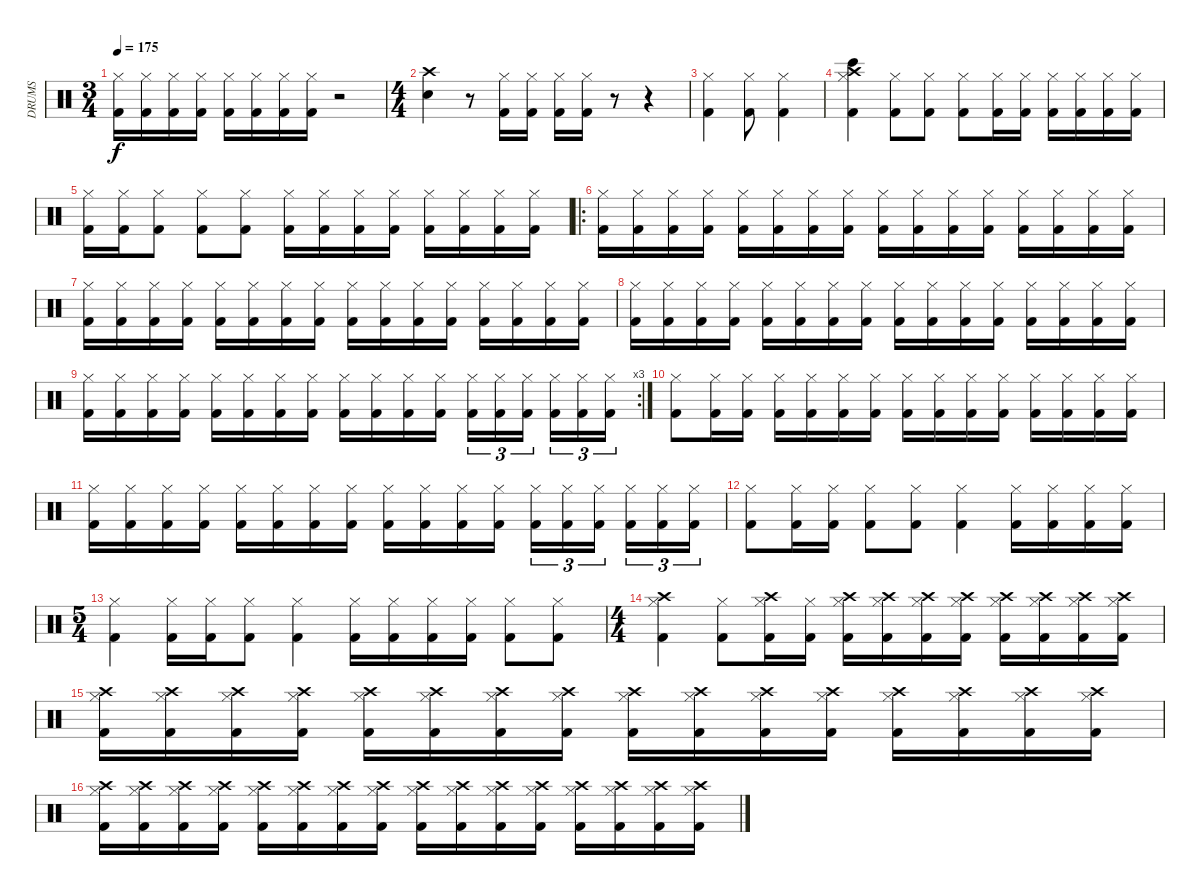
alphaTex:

\track ("DRUMS" "DRUMS") {instrument percussion}
\staff {score}
\articulation defaults
\ts (3 4)
\tempo 175
\clef neutral
\ks c
("Kick (hit) 2" "Hi-Hat (closed)").16{dy f} ("Kick (hit) 2" "Hi-Hat (closed)").16 ("Kick (hit) 2" "Hi-Hat (closed)").16 ("Kick (hit) 2" "Hi-Hat (closed)").16 ("Kick (hit) 2" "Hi-Hat (closed)").16 ("Kick (hit) 2" "Hi-Hat (closed)").16 ("Kick (hit) 2" "Hi-Hat (closed)").16 ("Kick (hit) 2" "Hi-Hat (closed)").16 r.2 |
\ts (4 4)
("Crash high (hit)" "Snare (hit) 2").4 r.8 ("Kick (hit) 2" "Hi-Hat (closed)").16 ("Kick (hit) 2" "Hi-Hat (closed)").16 ("Kick (hit) 2" "Hi-Hat (closed)").16 ("Kick (hit) 2" "Hi-Hat (closed)").16 r.8 r.4 |
("Kick (hit) 2" "Hi-Hat (closed)").4 ("Kick (hit) 2" "Hi-Hat (closed)").8 ("Kick (hit) 2" "Hi-Hat (closed)").4 |
("Crash high (hit)" "Bongo High (hit)" "Hi-Hat (closed)" "Kick (hit) 2").4 ("Kick (hit) 2" "Hi-Hat (closed)").8 ("Kick (hit) 2" "Hi-Hat (closed)").8 ("Kick (hit) 2" "Hi-Hat (closed)").8 ("Kick (hit) 2" "Hi-Hat (closed)").16 ("Kick (hit) 2" "Hi-Hat (closed)").16 ("Kick (hit) 2" "Hi-Hat (closed)").16 ("Kick (hit) 2" "Hi-Hat (closed)").16 ("Kick (hit) 2" "Hi-Hat (closed)").16 ("Kick (hit) 2" "Hi-Hat (closed)").16 |
("Kick (hit) 2" "Hi-Hat (closed)").16 ("Kick (hit) 2" "Hi-Hat (closed)").16 ("Kick (hit) 2" "Hi-Hat (closed)").8 ("Kick (hit) 2" "Hi-Hat (closed)").8 ("Kick (hit) 2" "Hi-Hat (closed)").8 ("Kick (hit) 2" "Hi-Hat (closed)").16 ("Kick (hit) 2" "Hi-Hat (closed)").16 ("Kick (hit) 2" "Hi-Hat (closed)").16 ("Kick (hit) 2" "Hi-Hat (closed)").16 ("Kick (hit) 2" "Hi-Hat (closed)").16 ("Kick (hit) 2" "Hi-Hat (closed)").16 ("Kick (hit) 2" "Hi-Hat (closed)").16 ("Kick (hit) 2" "Hi-Hat (closed)").16 |
\ro
("Kick (hit) 2" "Hi-Hat (closed)").16 ("Kick (hit) 2" "Hi-Hat (closed)").16 ("Kick (hit) 2" "Hi-Hat (closed)").16 ("Kick (hit) 2" "Hi-Hat (closed)").16 ("Kick (hit) 2" "Hi-Hat (closed)").16 ("Kick (hit) 2" "Hi-Hat (closed)").16 ("Kick (hit) 2" "Hi-Hat (closed)").16 ("Kick (hit) 2" "Hi-Hat (closed)").16 ("Kick (hit) 2" "Hi-Hat (closed)").16 ("Kick (hit) 2" "Hi-Hat (closed)").16 ("Kick (hit) 2" "Hi-Hat (closed)").16 ("Kick (hit) 2" "Hi-Hat (closed)").16 ("Kick (hit) 2" "Hi-Hat (closed)").16 ("Kick (hit) 2" "Hi-Hat (closed)").16 ("Kick (hit) 2" "Hi-Hat (closed)").16 ("Kick (hit) 2" "Hi-Hat (closed)").16 |
("Kick (hit) 2" "Hi-Hat (closed)").16 ("Kick (hit) 2" "Hi-Hat (closed)").16 ("Kick (hit) 2" "Hi-Hat (closed)").16 ("Kick (hit) 2" "Hi-Hat (closed)").16 ("Kick (hit) 2" "Hi-Hat (closed)").16 ("Kick (hit) 2" "Hi-Hat (closed)").16 ("Kick (hit) 2" "Hi-Hat (closed)").16 ("Kick (hit) 2" "Hi-Hat (closed)").16 ("Kick (hit) 2" "Hi-Hat (closed)").16 ("Kick (hit) 2" "Hi-Hat (closed)").16 ("Kick (hit) 2" "Hi-Hat (closed)").16 ("Kick (hit) 2" "Hi-Hat (closed)").16 ("Kick (hit) 2" "Hi-Hat (closed)").16 ("Kick (hit) 2" "Hi-Hat (closed)").16 ("Kick (hit) 2" "Hi-Hat (closed)").16 ("Kick (hit) 2" "Hi-Hat (closed)").16 |
("Kick (hit) 2" "Hi-Hat (closed)").16 ("Kick (hit) 2" "Hi-Hat (closed)").16 ("Kick (hit) 2" "Hi-Hat (closed)").16 ("Kick (hit) 2" "Hi-Hat (closed)").16 ("Kick (hit) 2" "Hi-Hat (closed)").16 ("Kick (hit) 2" "Hi-Hat (closed)").16 ("Kick (hit) 2" "Hi-Hat (closed)").16 ("Kick (hit) 2" "Hi-Hat (closed)").16 ("Kick (hit) 2" "Hi-Hat (closed)").16 ("Kick (hit) 2" "Hi-Hat (closed)").16 ("Kick (hit) 2" "Hi-Hat (closed)").16 ("Kick (hit) 2" "Hi-Hat (closed)").16 ("Kick (hit) 2" "Hi-Hat (closed)").16 ("Kick (hit) 2" "Hi-Hat (closed)").16 ("Kick (hit) 2" "Hi-Hat (closed)").16 ("Kick (hit) 2" "Hi-Hat (closed)").16 |
\rc 3
("Kick (hit) 2" "Hi-Hat (closed)").16 ("Kick (hit) 2" "Hi-Hat (closed)").16 ("Kick (hit) 2" "Hi-Hat (closed)").16 ("Kick (hit) 2" "Hi-Hat (closed)").16 ("Kick (hit) 2" "Hi-Hat (closed)").16 ("Kick (hit) 2" "Hi-Hat (closed)").16 ("Kick (hit) 2" "Hi-Hat (closed)").16 ("Kick (hit) 2" "Hi-Hat (closed)").16 ("Kick (hit) 2" "Hi-Hat (closed)").16 ("Kick (hit) 2" "Hi-Hat (closed)").16 ("Kick (hit) 2" "Hi-Hat (closed)").16 ("Kick (hit) 2" "Hi-Hat (closed)").16 ("Kick (hit) 2" "Hi-Hat (closed)").16{tu (3 2)} ("Kick (hit) 2" "Hi-Hat (closed)").16{tu (3 2)} ("Kick (hit) 2" "Hi-Hat (closed)").16{tu (3 2)} ("Kick (hit) 2" "Hi-Hat (closed)").16{tu (3 2)} ("Kick (hit) 2" "Hi-Hat (closed)").16{tu (3 2)} ("Kick (hit) 2" "Hi-Hat (closed)").16{tu (3 2)} |
("Kick (hit) 2" "Hi-Hat (closed)").8 ("Kick (hit) 2" "Hi-Hat (closed)").16 ("Kick (hit) 2" "Hi-Hat (closed)").16 ("Kick (hit) 2" "Hi-Hat (closed)").16 ("Kick (hit) 2" "Hi-Hat (closed)").16 ("Kick (hit) 2" "Hi-Hat (closed)").16 ("Kick (hit) 2" "Hi-Hat (closed)").16 ("Kick (hit) 2" "Hi-Hat (closed)").16 ("Kick (hit) 2" "Hi-Hat (closed)").16 ("Kick (hit) 2" "Hi-Hat (closed)").16 ("Kick (hit) 2" "Hi-Hat (closed)").16 ("Kick (hit) 2" "Hi-Hat (closed)").16 ("Kick (hit) 2" "Hi-Hat (closed)").16 ("Kick (hit) 2" "Hi-Hat (closed)").16 ("Kick (hit) 2" "Hi-Hat (closed)").16 |
("Kick (hit) 2" "Hi-Hat (closed)").16 ("Kick (hit) 2" "Hi-Hat (closed)").16 ("Kick (hit) 2" "Hi-Hat (closed)").16 ("Kick (hit) 2" "Hi-Hat (closed)").16 ("Kick (hit) 2" "Hi-Hat (closed)").16 ("Kick (hit) 2" "Hi-Hat (closed)").16 ("Kick (hit) 2" "Hi-Hat (closed)").16 ("Kick (hit) 2" "Hi-Hat (closed)").16 ("Kick (hit) 2" "Hi-Hat (closed)").16 ("Kick (hit) 2" "Hi-Hat (closed)").16 ("Kick (hit) 2" "Hi-Hat (closed)").16 ("Kick (hit) 2" "Hi-Hat (closed)").16 ("Kick (hit) 2" "Hi-Hat (closed)").16{tu (3 2)} ("Kick (hit) 2" "Hi-Hat (closed)").16{tu (3 2)} ("Kick (hit) 2" "Hi-Hat (closed)").16{tu (3 2)} ("Kick (hit) 2" "Hi-Hat (closed)").16{tu (3 2)} ("Kick (hit) 2" "Hi-Hat (closed)").16{tu (3 2)} ("Kick (hit) 2" "Hi-Hat (closed)").16{tu (3 2)} |
("Kick (hit) 2" "Hi-Hat (closed)").8 ("Kick (hit) 2" "Hi-Hat (closed)").16 ("Kick (hit) 2" "Hi-Hat (closed)").16 ("Kick (hit) 2" "Hi-Hat (closed)").8 ("Kick (hit) 2" "Hi-Hat (closed)").8 ("Kick (hit) 2" "Hi-Hat (closed)").4 ("Kick (hit) 2" "Hi-Hat (closed)").16 ("Kick (hit) 2" "Hi-Hat (closed)").16 ("Kick (hit) 2" "Hi-Hat (closed)").16 ("Kick (hit) 2" "Hi-Hat (closed)").16 |
\ts (5 4)
("Kick (hit) 2" "Hi-Hat (closed)").4 ("Kick (hit) 2" "Hi-Hat (closed)").16 ("Kick (hit) 2" "Hi-Hat (closed)").16 ("Kick (hit) 2" "Hi-Hat (closed)").8 ("Kick (hit) 2" "Hi-Hat (closed)").4 ("Kick (hit) 2" "Hi-Hat (closed)").16 ("Kick (hit) 2" "Hi-Hat (closed)").16 ("Kick (hit) 2" "Hi-Hat (closed)").16 ("Kick (hit) 2" "Hi-Hat (closed)").16 ("Kick (hit) 2" "Hi-Hat (closed)").8 ("Kick (hit) 2" "Hi-Hat (closed)").8 |
\ts (4 4)
("Crash high (hit)" "Kick (hit) 2" "Hi-Hat (closed)").4 ("Kick (hit) 2" "Hi-Hat (closed)").8 ("Crash high (hit)" "Kick (hit) 2" "Hi-Hat (closed)").16 ("Kick (hit) 2" "Hi-Hat (closed)").16 ("Crash high (hit)" "Kick (hit) 2" "Hi-Hat (closed)").16 ("Crash high (hit)" "Kick (hit) 2" "Hi-Hat (closed)").16 ("Crash high (hit)" "Kick (hit) 2" "Hi-Hat (closed)").16 ("Crash high (hit)" "Kick (hit) 2" "Hi-Hat (closed)").16 ("Crash high (hit)" "Kick (hit) 2" "Hi-Hat (closed)").16 ("Crash high (hit)" "Kick (hit) 2" "Hi-Hat (closed)").16 ("Crash high (hit)" "Kick (hit) 2" "Hi-Hat (closed)").16 ("Crash high (hit)" "Kick (hit) 2" "Hi-Hat (closed)").16 |
("Crash high (hit)" "Kick (hit) 2" "Hi-Hat (closed)").16 ("Crash high (hit)" "Kick (hit) 2" "Hi-Hat (closed)").16 ("Crash high (hit)" "Kick (hit) 2" "Hi-Hat (closed)").16 ("Crash high (hit)" "Kick (hit) 2" "Hi-Hat (closed)").16 ("Crash high (hit)" "Kick (hit) 2" "Hi-Hat (closed)").16 ("Crash high (hit)" "Kick (hit) 2" "Hi-Hat (closed)").16 ("Crash high (hit)" "Kick (hit) 2" "Hi-Hat (closed)").16 ("Crash high (hit)" "Kick (hit) 2" "Hi-Hat (closed)").16 ("Crash high (hit)" "Kick (hit) 2" "Hi-Hat (closed)").16 ("Crash high (hit)" "Kick (hit) 2" "Hi-Hat (closed)").16 ("Crash high (hit)" "Kick (hit) 2" "Hi-Hat (closed)").16 ("Crash high (hit)" "Kick (hit) 2" "Hi-Hat (closed)").16 ("Crash high (hit)" "Kick (hit) 2" "Hi-Hat (closed)").16 ("Crash high (hit)" "Kick (hit) 2" "Hi-Hat (closed)").16 ("Crash high (hit)" "Kick (hit) 2" "Hi-Hat (closed)").16 ("Crash high (hit)" "Kick (hit) 2" "Hi-Hat (closed)").16 |
("Crash high (hit)" "Kick (hit) 2" "Hi-Hat (closed)").16 ("Crash high (hit)" "Kick (hit) 2" "Hi-Hat (closed)").16 ("Crash high (hit)" "Kick (hit) 2" "Hi-Hat (closed)").16 ("Crash high (hit)" "Kick (hit) 2" "Hi-Hat (closed)").16 ("Crash high (hit)" "Kick (hit) 2" "Hi-Hat (closed)").16 ("Crash high (hit)" "Kick (hit) 2" "Hi-Hat (closed)").16 ("Crash high (hit)" "Kick (hit) 2" "Hi-Hat (closed)").16 ("Crash high (hit)" "Kick (hit) 2" "Hi-Hat (closed)").16 ("Crash high (hit)" "Kick (hit) 2" "Hi-Hat (closed)").16 ("Crash high (hit)" "Kick (hit) 2" "Hi-Hat (closed)").16 ("Crash high (hit)" "Kick (hit) 2" "Hi-Hat (closed)").16 ("Crash high (hit)" "Kick (hit) 2" "Hi-Hat (closed)").16 ("Crash high (hit)" "Kick (hit) 2" "Hi-Hat (closed)").16 ("Crash high (hit)" "Kick (hit) 2" "Hi-Hat (closed)").16 ("Crash high (hit)" "Kick (hit) 2" "Hi-Hat (closed)").16 ("Crash high (hit)" "Kick (hit) 2" "Hi-Hat (closed)").16
